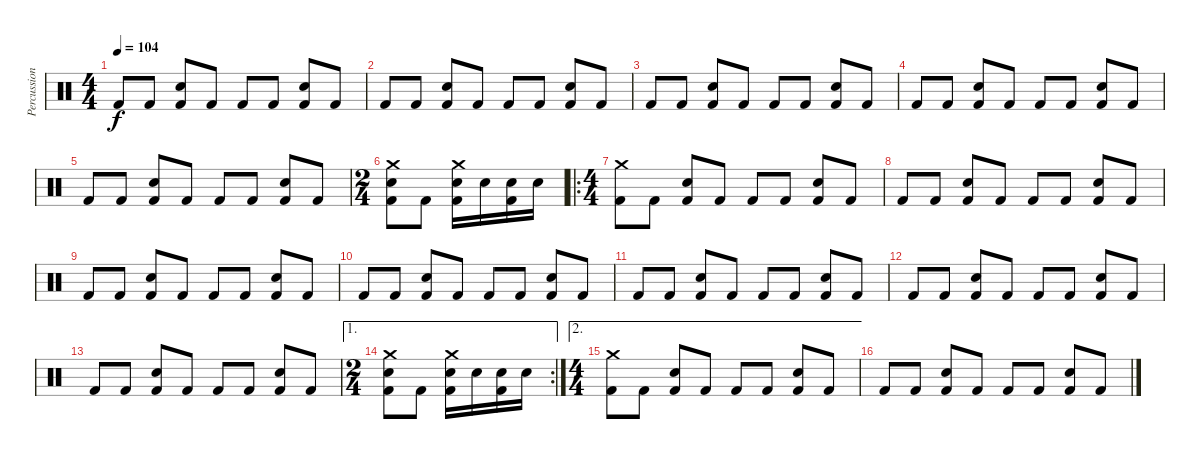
\track ("Percussions" "Percussion") {instrument percussion}
\staff {score}
\articulation defaults
\ts (4 4)
\tempo 104
\clef neutral
\ks c "Kick (hit) 2".8{dy f} "Kick (hit) 2".8
("Snare (hit) 2" "Kick (hit) 2").8 "Kick (hit) 2".8 "Kick (hit) 2".8 "Kick (hit) 2".8 ("Snare (hit) 2" "Kick (hit) 2").8 "Kick (hit) 2".8 |
"Kick (hit) 2".8 "Kick (hit) 2".8 ("Snare (hit) 2" "Kick (hit) 2").8 "Kick (hit) 2".8 "Kick (hit) 2".8 "Kick (hit) 2".8 ("Snare (hit) 2" "Kick (hit) 2").8 "Kick (hit) 2".8 |
"Kick (hit) 2".8 "Kick (hit) 2".8 ("Snare (hit) 2" "Kick (hit) 2").8 "Kick (hit) 2".8 "Kick (hit) 2".8 "Kick (hit) 2".8 ("Snare (hit) 2" "Kick (hit) 2").8 "Kick (hit) 2".8 |
"Kick (hit) 2".8 "Kick (hit) 2".8 ("Snare (hit) 2" "Kick (hit) 2").8 "Kick (hit) 2".8 "Kick (hit) 2".8 "Kick (hit) 2".8 ("Snare (hit) 2" "Kick (hit) 2").8 "Kick (hit) 2".8 |
"Kick (hit) 2".8 "Kick (hit) 2".8 ("Snare (hit) 2" "Kick (hit) 2").8 "Kick (hit) 2".8 "Kick (hit) 2".8 "Kick (hit) 2".8 ("Snare (hit) 2" "Kick (hit) 2").8 "Kick (hit) 2".8 |
\ts (2 4)
("Crash medium (hit)" "Snare (hit) 2" "Kick (hit) 2").8 "Kick (hit) 2".8 ("Crash medium (hit)" "Snare (hit) 2" "Kick (hit) 2").16 "Snare (hit) 2".16 ("Snare (hit) 2" "Kick (hit) 2").16 "Snare (hit) 2".16 |
\ro
\ts (4 4)
("Crash medium (hit)" "Kick (hit) 2").8 "Kick (hit) 2".8 ("Snare (hit) 2" "Kick (hit) 2").8 "Kick (hit) 2".8 "Kick (hit) 2".8 "Kick (hit) 2".8 ("Snare (hit) 2" "Kick (hit) 2").8 "Kick (hit) 2".8 |
"Kick (hit) 2".8 "Kick (hit) 2".8 ("Snare (hit) 2" "Kick (hit) 2").8 "Kick (hit) 2".8 "Kick (hit) 2".8 "Kick (hit) 2".8 ("Snare (hit) 2" "Kick (hit) 2").8 "Kick (hit) 2".8 |
"Kick (hit) 2".8 "Kick (hit) 2".8 ("Snare (hit) 2" "Kick (hit) 2").8 "Kick (hit) 2".8 "Kick (hit) 2".8 "Kick (hit) 2".8 ("Snare (hit) 2" "Kick (hit) 2").8 "Kick (hit) 2".8 |
"Kick (hit) 2".8 "Kick (hit) 2".8 ("Snare (hit) 2" "Kick (hit) 2").8 "Kick (hit) 2".8 "Kick (hit) 2".8 "Kick (hit) 2".8 ("Snare (hit) 2" "Kick (hit) 2").8 "Kick (hit) 2".8 |
"Kick (hit) 2".8 "Kick (hit) 2".8 ("Snare (hit) 2" "Kick (hit) 2").8 "Kick (hit) 2".8 "Kick (hit) 2".8 "Kick (hit) 2".8 ("Snare (hit) 2" "Kick (hit) 2").8 "Kick (hit) 2".8 |
"Kick (hit) 2".8 "Kick (hit) 2".8 ("Snare (hit) 2" "Kick (hit) 2").8 "Kick (hit) 2".8 "Kick (hit) 2".8 "Kick (hit) 2".8 ("Snare (hit) 2" "Kick (hit) 2").8 "Kick (hit) 2".8 |
"Kick (hit) 2".8 "Kick (hit) 2".8 ("Snare (hit) 2" "Kick (hit) 2").8 "Kick (hit) 2".8 "Kick (hit) 2".8 "Kick (hit) 2".8 ("Snare (hit) 2" "Kick (hit) 2").8 "Kick (hit) 2".8 |
\ae 1
\rc 2
\ts (2 4)
("Crash medium (hit)" "Snare (hit) 2" "Kick (hit) 2").8 "Kick (hit) 2".8 ("Crash medium (hit)" "Snare (hit) 2" "Kick (hit) 2").16 "Snare (hit) 2".16 ("Snare (hit) 2" "Kick (hit) 2").16 "Snare (hit) 2".16 |
\ae 2
\ts (4 4)
("Crash medium (hit)" "Kick (hit) 2").8 "Kick (hit) 2".8 ("Snare (hit) 2" "Kick (hit) 2").8 "Kick (hit) 2".8 "Kick (hit) 2".8 "Kick (hit) 2".8 ("Snare (hit) 2" "Kick (hit) 2").8 "Kick (hit) 2".8 |
"Kick (hit) 2".8 "Kick (hit) 2".8 ("Snare (hit) 2" "Kick (hit) 2").8 "Kick (hit) 2".8 "Kick (hit) 2".8 "Kick (hit) 2".8 ("Snare (hit) 2" "Kick (hit) 2").8 "Kick (hit) 2".8
